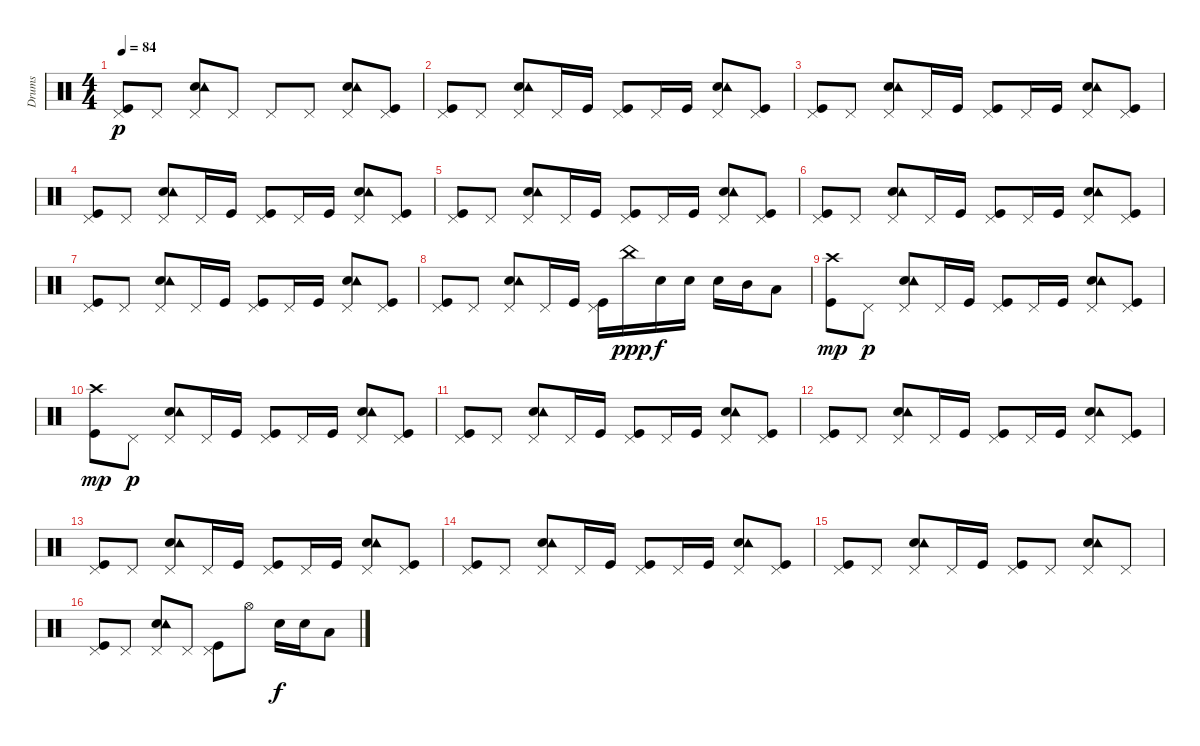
\track ("Drums" "Drums") {instrument percussion}
\staff {score}
\articulation defaults
\ts (4 4)
\tempo 84
\clef neutral
\ks c
("Kick (hit)" "Pedal Hi-Hat (hit)").8{dy p} "Pedal Hi-Hat (hit)".8 ("Electric Snare (hit)" "Pedal Hi-Hat (hit)" "Tambourine (hit)").8 "Pedal Hi-Hat (hit)".8 "Pedal Hi-Hat (hit)".8 "Pedal Hi-Hat (hit)".8 ("Electric Snare (hit)" "Pedal Hi-Hat (hit)" "Tambourine (hit)").8 ("Kick (hit)" "Pedal Hi-Hat (hit)").8 |
("Kick (hit)" "Pedal Hi-Hat (hit)").8 "Pedal Hi-Hat (hit)".8 ("Electric Snare (hit)" "Pedal Hi-Hat (hit)" "Tambourine (hit)").8 "Pedal Hi-Hat (hit)".16 "Kick (hit)".16 ("Kick (hit)" "Pedal Hi-Hat (hit)").8 "Pedal Hi-Hat (hit)".16 "Kick (hit)".16 ("Electric Snare (hit)" "Pedal Hi-Hat (hit)" "Tambourine (hit)").8 ("Kick (hit)" "Pedal Hi-Hat (hit)").8 |
("Kick (hit)" "Pedal Hi-Hat (hit)").8 "Pedal Hi-Hat (hit)".8 ("Electric Snare (hit)" "Pedal Hi-Hat (hit)" "Tambourine (hit)").8 "Pedal Hi-Hat (hit)".16 "Kick (hit)".16 ("Kick (hit)" "Pedal Hi-Hat (hit)").8 "Pedal Hi-Hat (hit)".16 "Kick (hit)".16 ("Electric Snare (hit)" "Pedal Hi-Hat (hit)" "Tambourine (hit)").8 ("Kick (hit)" "Pedal Hi-Hat (hit)").8 |
("Kick (hit)" "Pedal Hi-Hat (hit)").8 "Pedal Hi-Hat (hit)".8 ("Electric Snare (hit)" "Pedal Hi-Hat (hit)" "Tambourine (hit)").8 "Pedal Hi-Hat (hit)".16 "Kick (hit)".16 ("Kick (hit)" "Pedal Hi-Hat (hit)").8 "Pedal Hi-Hat (hit)".16 "Kick (hit)".16 ("Electric Snare (hit)" "Pedal Hi-Hat (hit)" "Tambourine (hit)").8 ("Kick (hit)" "Pedal Hi-Hat (hit)").8 |
("Kick (hit)" "Pedal Hi-Hat (hit)").8 "Pedal Hi-Hat (hit)".8 ("Electric Snare (hit)" "Pedal Hi-Hat (hit)" "Tambourine (hit)").8 "Pedal Hi-Hat (hit)".16 "Kick (hit)".16 ("Kick (hit)" "Pedal Hi-Hat (hit)").8 "Pedal Hi-Hat (hit)".16 "Kick (hit)".16 ("Electric Snare (hit)" "Pedal Hi-Hat (hit)" "Tambourine (hit)").8 ("Kick (hit)" "Pedal Hi-Hat (hit)").8 |
("Kick (hit)" "Pedal Hi-Hat (hit)").8 "Pedal Hi-Hat (hit)".8 ("Electric Snare (hit)" "Pedal Hi-Hat (hit)" "Tambourine (hit)").8 "Pedal Hi-Hat (hit)".16 "Kick (hit)".16 ("Kick (hit)" "Pedal Hi-Hat (hit)").8 "Pedal Hi-Hat (hit)".16 "Kick (hit)".16 ("Electric Snare (hit)" "Pedal Hi-Hat (hit)" "Tambourine (hit)").8 ("Kick (hit)" "Pedal Hi-Hat (hit)").8 |
("Kick (hit)" "Pedal Hi-Hat (hit)").8 "Pedal Hi-Hat (hit)".8 ("Electric Snare (hit)" "Pedal Hi-Hat (hit)" "Tambourine (hit)").8 "Pedal Hi-Hat (hit)".16 "Kick (hit)".16 ("Kick (hit)" "Pedal Hi-Hat (hit)").8 "Pedal Hi-Hat (hit)".16 "Kick (hit)".16 ("Electric Snare (hit)" "Pedal Hi-Hat (hit)" "Tambourine (hit)").8 ("Kick (hit)" "Pedal Hi-Hat (hit)").8 |
("Kick (hit)" "Pedal Hi-Hat (hit)").8 "Pedal Hi-Hat (hit)".8 ("Electric Snare (hit)" "Pedal Hi-Hat (hit)" "Tambourine (hit)").8 "Pedal Hi-Hat (hit)".16 "Kick (hit)".16 ("Kick (hit)" "Pedal Hi-Hat (hit)").16 "China (hit)".16{dy ppp} "Electric Snare (hit)".16{dy f} "Electric Snare (hit)".16 "Electric Snare (hit)".16 "Mid Tom (hit)".16 "Low Tom (hit)".8 |
("Kick (hit)" "Crash high (hit)").8{dy mp} "Pedal Hi-Hat (hit)".8{dy p} ("Electric Snare (hit)" "Pedal Hi-Hat (hit)" "Tambourine (hit)").8 "Pedal Hi-Hat (hit)".16 "Kick (hit)".16 ("Kick (hit)" "Pedal Hi-Hat (hit)").8 "Pedal Hi-Hat (hit)".16 "Kick (hit)".16 ("Electric Snare (hit)" "Pedal Hi-Hat (hit)" "Tambourine (hit)").8 ("Kick (hit)" "Pedal Hi-Hat (hit)").8 |
("Kick (hit)" "Crash high (hit)").8{dy mp} "Pedal Hi-Hat (hit)".8{dy p} ("Electric Snare (hit)" "Pedal Hi-Hat (hit)" "Tambourine (hit)").8 "Pedal Hi-Hat (hit)".16 "Kick (hit)".16 ("Kick (hit)" "Pedal Hi-Hat (hit)").8 "Pedal Hi-Hat (hit)".16 "Kick (hit)".16 ("Electric Snare (hit)" "Pedal Hi-Hat (hit)" "Tambourine (hit)").8 ("Kick (hit)" "Pedal Hi-Hat (hit)").8 |
("Kick (hit)" "Pedal Hi-Hat (hit)").8 "Pedal Hi-Hat (hit)".8 ("Electric Snare (hit)" "Pedal Hi-Hat (hit)" "Tambourine (hit)").8 "Pedal Hi-Hat (hit)".16 "Kick (hit)".16 ("Kick (hit)" "Pedal Hi-Hat (hit)").8 "Pedal Hi-Hat (hit)".16 "Kick (hit)".16 ("Electric Snare (hit)" "Pedal Hi-Hat (hit)" "Tambourine (hit)").8 ("Kick (hit)" "Pedal Hi-Hat (hit)").8 |
("Kick (hit)" "Pedal Hi-Hat (hit)").8 "Pedal Hi-Hat (hit)".8 ("Electric Snare (hit)" "Pedal Hi-Hat (hit)" "Tambourine (hit)").8 "Pedal Hi-Hat (hit)".16 "Kick (hit)".16 ("Kick (hit)" "Pedal Hi-Hat (hit)").8 "Pedal Hi-Hat (hit)".16 "Kick (hit)".16 ("Electric Snare (hit)" "Pedal Hi-Hat (hit)" "Tambourine (hit)").8 ("Kick (hit)" "Pedal Hi-Hat (hit)").8 |
("Kick (hit)" "Pedal Hi-Hat (hit)").8 "Pedal Hi-Hat (hit)".8 ("Electric Snare (hit)" "Pedal Hi-Hat (hit)" "Tambourine (hit)").8 "Pedal Hi-Hat (hit)".16 "Kick (hit)".16 ("Kick (hit)" "Pedal Hi-Hat (hit)").8 "Pedal Hi-Hat (hit)".16 "Kick (hit)".16 ("Electric Snare (hit)" "Pedal Hi-Hat (hit)" "Tambourine (hit)").8 ("Kick (hit)" "Pedal Hi-Hat (hit)").8 |
("Kick (hit)" "Pedal Hi-Hat (hit)").8 "Pedal Hi-Hat (hit)".8 ("Electric Snare (hit)" "Pedal Hi-Hat (hit)" "Tambourine (hit)").8 "Pedal Hi-Hat (hit)".16 "Kick (hit)".16 ("Kick (hit)" "Pedal Hi-Hat (hit)").8 "Pedal Hi-Hat (hit)".16 "Kick (hit)".16 ("Electric Snare (hit)" "Pedal Hi-Hat (hit)" "Tambourine (hit)").8 ("Kick (hit)" "Pedal Hi-Hat (hit)").8 |
("Kick (hit)" "Pedal Hi-Hat (hit)").8 "Pedal Hi-Hat (hit)".8 ("Electric Snare (hit)" "Pedal Hi-Hat (hit)" "Tambourine (hit)").8 "Pedal Hi-Hat (hit)".16 "Kick (hit)".16 ("Kick (hit)" "Pedal Hi-Hat (hit)").8 "Pedal Hi-Hat (hit)".8 ("Electric Snare (hit)" "Pedal Hi-Hat (hit)" "Tambourine (hit)").8 "Pedal Hi-Hat (hit)".8 |
("Kick (hit)" "Pedal Hi-Hat (hit)").8 "Pedal Hi-Hat (hit)".8 ("Electric Snare (hit)" "Pedal Hi-Hat (hit)" "Tambourine (hit)").8 "Pedal Hi-Hat (hit)".8 ("Kick (hit)" "Pedal Hi-Hat (hit)").8 "Hi-Hat (open)".8 "Electric Snare (hit)".16{dy f} "Electric Snare (hit)".16 "Low Tom (hit)".8
